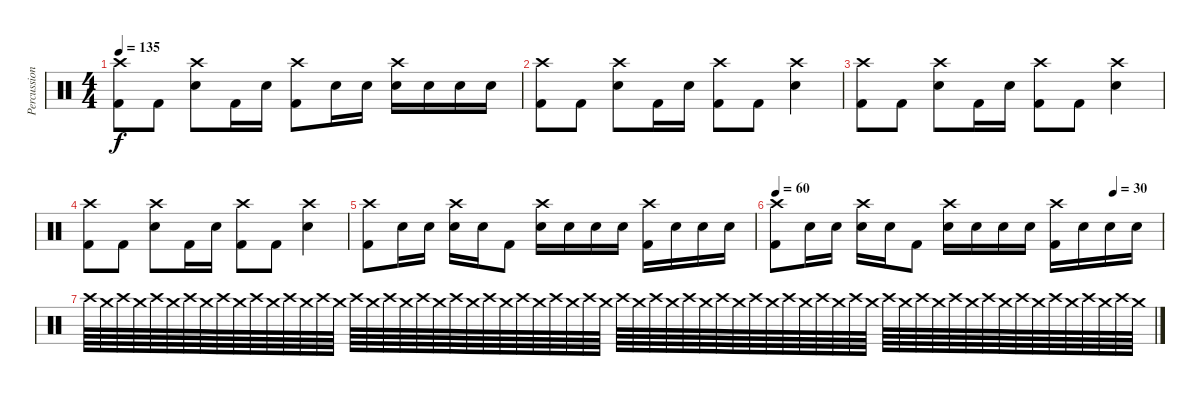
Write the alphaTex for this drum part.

\track ("Percussion" "Percussion") {instrument percussion}
\staff {score}
\articulation defaults
\ts (4 4)
\tempo 135
\clef neutral
\ks c
("Kick (hit) 2" "Crash high (hit)").8{dy f} "Kick (hit) 2".8 ("Snare (hit) 2" "Crash high (hit)").8 "Kick (hit) 2".16 "Snare (hit) 2".16 ("Kick (hit) 2" "Crash high (hit)").8 "Snare (hit) 2".16 "Snare (hit) 2".16 ("Snare (hit) 2" "Crash high (hit)").16 "Snare (hit) 2".16 "Snare (hit) 2".16 "Snare (hit) 2".16 |
("Kick (hit) 2" "Crash high (hit)").8 "Kick (hit) 2".8 ("Snare (hit) 2" "Crash high (hit)").8 "Kick (hit) 2".16 "Snare (hit) 2".16 ("Kick (hit) 2" "Crash high (hit)").8 "Kick (hit) 2".8 ("Snare (hit) 2" "Crash high (hit)").4 |
("Kick (hit) 2" "Crash high (hit)").8 "Kick (hit) 2".8 ("Snare (hit) 2" "Crash high (hit)").8 "Kick (hit) 2".16 "Snare (hit) 2".16 ("Kick (hit) 2" "Crash high (hit)").8 "Kick (hit) 2".8 ("Snare (hit) 2" "Crash high (hit)").4 |
("Kick (hit) 2" "Crash high (hit)").8 "Kick (hit) 2".8 ("Snare (hit) 2" "Crash high (hit)").8 "Kick (hit) 2".16 "Snare (hit) 2".16 ("Kick (hit) 2" "Crash high (hit)").8 "Kick (hit) 2".8 ("Snare (hit) 2" "Crash high (hit)").4 |
("Kick (hit) 2" "Crash high (hit)").8 "Snare (hit) 2".16 "Snare (hit) 2".16 ("Snare (hit) 2" "Crash high (hit)").16 "Snare (hit) 2".16 "Kick (hit) 2".8 ("Snare (hit) 2" "Crash high (hit)").16 "Snare (hit) 2".16 "Snare (hit) 2".16 "Snare (hit) 2".16 ("Kick (hit) 2" "Crash high (hit)").16 "Snare (hit) 2".16 "Snare (hit) 2".16 "Snare (hit) 2".16 |
\tempo 60
\tempo (30 0.875)
("Kick (hit) 2" "Crash high (hit)").8 "Snare (hit) 2".16 "Snare (hit) 2".16 ("Snare (hit) 2" "Crash high (hit)").16 "Snare (hit) 2".16 "Kick (hit) 2".8 ("Snare (hit) 2" "Crash high (hit)").16 "Snare (hit) 2".16 "Snare (hit) 2".16 "Snare (hit) 2".16 ("Kick (hit) 2" "Crash high (hit)").16 "Snare (hit) 2".16 "Snare (hit) 2".16 "Snare (hit) 2".16 |
"Crash high (hit)".64{volume 5} "Crash medium (hit)".64 "Crash high (hit)".64 "Crash medium (hit)".64 "Crash high (hit)".64 "Crash medium (hit)".64 "Crash high (hit)".64 "Crash medium (hit)".64 "Crash high (hit)".64 "Crash medium (hit)".64 "Crash high (hit)".64 "Crash medium (hit)".64 "Crash high (hit)".64 "Crash medium (hit)".64 "Crash high (hit)".64 "Crash medium (hit)".64 "Crash high (hit)".64 "Crash medium (hit)".64 "Crash high (hit)".64 "Crash medium (hit)".64 "Crash high (hit)".64 "Crash medium (hit)".64 "Crash high (hit)".64 "Crash medium (hit)".64 "Crash high (hit)".64 "Crash medium (hit)".64 "Crash high (hit)".64 "Crash medium (hit)".64 "Crash high (hit)".64 "Crash medium (hit)".64 "Crash high (hit)".64 "Crash medium (hit)".64 "Crash high (hit)".64 "Crash medium (hit)".64 "Crash high (hit)".64 "Crash medium (hit)".64 "Crash high (hit)".64 "Crash medium (hit)".64 "Crash high (hit)".64 "Crash medium (hit)".64 "Crash high (hit)".64 "Crash medium (hit)".64 "Crash high (hit)".64 "Crash medium (hit)".64 "Crash high (hit)".64 "Crash medium (hit)".64 "Crash high (hit)".64 "Crash medium (hit)".64 "Crash high (hit)".64 "Crash medium (hit)".64 "Crash high (hit)".64 "Crash medium (hit)".64 "Crash high (hit)".64 "Crash medium (hit)".64 "Crash high (hit)".64 "Crash medium (hit)".64 "Crash high (hit)".64 "Crash medium (hit)".64 "Crash high (hit)".64 "Crash medium (hit)".64 "Crash high (hit)".64 "Crash medium (hit)".64 "Crash high (hit)".64 "Crash medium (hit)".64
